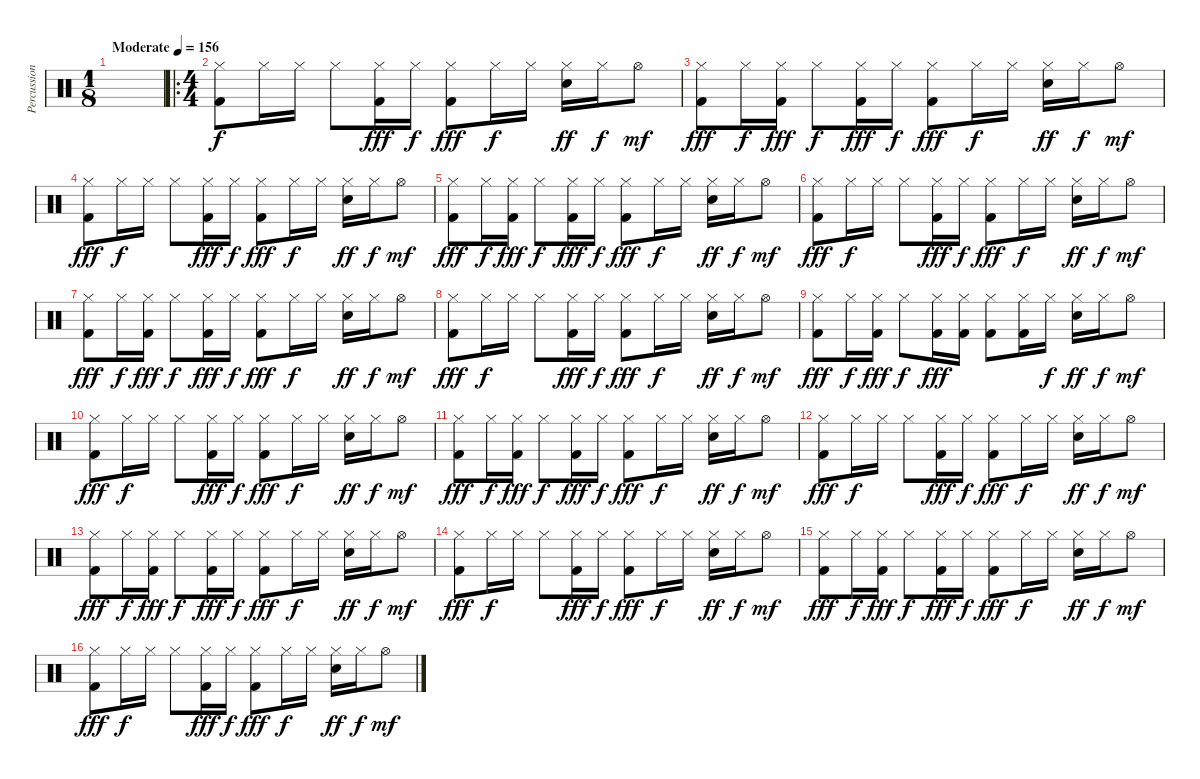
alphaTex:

\track ("Percussion" "Percussion") {instrument percussion}
\staff {score}
\articulation defaults
\ts (1 8)
\tempo (156 "Moderate")
\clef neutral
\ks c
|
\ro
\ts (4 4)
("Hi-Hat (closed)" "Kick (hit) 2").8 "Hi-Hat (closed)".16{dy f} "Hi-Hat (closed)".16 "Hi-Hat (closed)".8 ("Hi-Hat (closed)" "Kick (hit) 2").16{dy fff} "Hi-Hat (closed)".16{dy f} ("Hi-Hat (closed)" "Kick (hit) 2").8{dy fff} "Hi-Hat (closed)".16{dy f} "Hi-Hat (closed)".16 ("Hi-Hat (closed)" "Electric Snare (hit)").16{dy ff} "Hi-Hat (closed)".16{dy f} "Hi-Hat (open)".8{dy mf} |
("Hi-Hat (closed)" "Kick (hit) 2").8{dy fff} "Hi-Hat (closed)".16{dy f} ("Hi-Hat (closed)" "Kick (hit) 2").16{dy fff} "Hi-Hat (closed)".8{dy f} ("Hi-Hat (closed)" "Kick (hit) 2").16{dy fff} "Hi-Hat (closed)".16{dy f} ("Hi-Hat (closed)" "Kick (hit) 2").8{dy fff} "Hi-Hat (closed)".16{dy f} "Hi-Hat (closed)".16 ("Hi-Hat (closed)" "Electric Snare (hit)").16{dy ff} "Hi-Hat (closed)".16{dy f} "Hi-Hat (open)".8{dy mf} |
("Hi-Hat (closed)" "Kick (hit) 2").8{dy fff} "Hi-Hat (closed)".16{dy f} "Hi-Hat (closed)".16 "Hi-Hat (closed)".8 ("Hi-Hat (closed)" "Kick (hit) 2").16{dy fff} "Hi-Hat (closed)".16{dy f} ("Hi-Hat (closed)" "Kick (hit) 2").8{dy fff} "Hi-Hat (closed)".16{dy f} "Hi-Hat (closed)".16 ("Hi-Hat (closed)" "Electric Snare (hit)").16{dy ff} "Hi-Hat (closed)".16{dy f} "Hi-Hat (open)".8{dy mf} |
("Hi-Hat (closed)" "Kick (hit) 2").8{dy fff} "Hi-Hat (closed)".16{dy f} ("Hi-Hat (closed)" "Kick (hit) 2").16{dy fff} "Hi-Hat (closed)".8{dy f} ("Hi-Hat (closed)" "Kick (hit) 2").16{dy fff} "Hi-Hat (closed)".16{dy f} ("Hi-Hat (closed)" "Kick (hit) 2").8{dy fff} "Hi-Hat (closed)".16{dy f} "Hi-Hat (closed)".16 ("Hi-Hat (closed)" "Electric Snare (hit)").16{dy ff} "Hi-Hat (closed)".16{dy f} "Hi-Hat (open)".8{dy mf} |
("Hi-Hat (closed)" "Kick (hit) 2").8{dy fff} "Hi-Hat (closed)".16{dy f} "Hi-Hat (closed)".16 "Hi-Hat (closed)".8 ("Hi-Hat (closed)" "Kick (hit) 2").16{dy fff} "Hi-Hat (closed)".16{dy f} ("Hi-Hat (closed)" "Kick (hit) 2").8{dy fff} "Hi-Hat (closed)".16{dy f} "Hi-Hat (closed)".16 ("Hi-Hat (closed)" "Electric Snare (hit)").16{dy ff} "Hi-Hat (closed)".16{dy f} "Hi-Hat (open)".8{dy mf} |
("Hi-Hat (closed)" "Kick (hit) 2").8{dy fff} "Hi-Hat (closed)".16{dy f} ("Hi-Hat (closed)" "Kick (hit) 2").16{dy fff} "Hi-Hat (closed)".8{dy f} ("Hi-Hat (closed)" "Kick (hit) 2").16{dy fff} "Hi-Hat (closed)".16{dy f} ("Hi-Hat (closed)" "Kick (hit) 2").8{dy fff} "Hi-Hat (closed)".16{dy f} "Hi-Hat (closed)".16 ("Hi-Hat (closed)" "Electric Snare (hit)").16{dy ff} "Hi-Hat (closed)".16{dy f} "Hi-Hat (open)".8{dy mf} |
("Hi-Hat (closed)" "Kick (hit) 2").8{dy fff} "Hi-Hat (closed)".16{dy f} "Hi-Hat (closed)".16 "Hi-Hat (closed)".8 ("Hi-Hat (closed)" "Kick (hit) 2").16{dy fff} "Hi-Hat (closed)".16{dy f} ("Hi-Hat (closed)" "Kick (hit) 2").8{dy fff} "Hi-Hat (closed)".16{dy f} "Hi-Hat (closed)".16 ("Hi-Hat (closed)" "Electric Snare (hit)").16{dy ff} "Hi-Hat (closed)".16{dy f} "Hi-Hat (open)".8{dy mf} |
("Hi-Hat (closed)" "Kick (hit) 2").8{dy fff} "Hi-Hat (closed)".16{dy f} ("Hi-Hat (closed)" "Kick (hit) 2").16{dy fff} "Hi-Hat (closed)".8{dy f} ("Hi-Hat (closed)" "Kick (hit) 2").16{dy fff} ("Hi-Hat (closed)" "Kick (hit) 2").16 ("Hi-Hat (closed)" "Kick (hit) 2").8 ("Hi-Hat (closed)" "Kick (hit) 2").16 "Hi-Hat (closed)".16{dy f} ("Hi-Hat (closed)" "Electric Snare (hit)").16{dy ff} "Hi-Hat (closed)".16{dy f} "Hi-Hat (open)".8{dy mf} |
("Hi-Hat (closed)" "Kick (hit) 2").8{dy fff} "Hi-Hat (closed)".16{dy f} "Hi-Hat (closed)".16 "Hi-Hat (closed)".8 ("Hi-Hat (closed)" "Kick (hit) 2").16{dy fff} "Hi-Hat (closed)".16{dy f} ("Hi-Hat (closed)" "Kick (hit) 2").8{dy fff} "Hi-Hat (closed)".16{dy f} "Hi-Hat (closed)".16 ("Hi-Hat (closed)" "Electric Snare (hit)").16{dy ff} "Hi-Hat (closed)".16{dy f} "Hi-Hat (open)".8{dy mf} |
("Hi-Hat (closed)" "Kick (hit) 2").8{dy fff} "Hi-Hat (closed)".16{dy f} ("Hi-Hat (closed)" "Kick (hit) 2").16{dy fff} "Hi-Hat (closed)".8{dy f} ("Hi-Hat (closed)" "Kick (hit) 2").16{dy fff} "Hi-Hat (closed)".16{dy f} ("Hi-Hat (closed)" "Kick (hit) 2").8{dy fff} "Hi-Hat (closed)".16{dy f} "Hi-Hat (closed)".16 ("Hi-Hat (closed)" "Electric Snare (hit)").16{dy ff} "Hi-Hat (closed)".16{dy f} "Hi-Hat (open)".8{dy mf} |
("Hi-Hat (closed)" "Kick (hit) 2").8{dy fff} "Hi-Hat (closed)".16{dy f} "Hi-Hat (closed)".16 "Hi-Hat (closed)".8 ("Hi-Hat (closed)" "Kick (hit) 2").16{dy fff} "Hi-Hat (closed)".16{dy f} ("Hi-Hat (closed)" "Kick (hit) 2").8{dy fff} "Hi-Hat (closed)".16{dy f} "Hi-Hat (closed)".16 ("Hi-Hat (closed)" "Electric Snare (hit)").16{dy ff} "Hi-Hat (closed)".16{dy f} "Hi-Hat (open)".8{dy mf} |
("Hi-Hat (closed)" "Kick (hit) 2").8{dy fff} "Hi-Hat (closed)".16{dy f} ("Hi-Hat (closed)" "Kick (hit) 2").16{dy fff} "Hi-Hat (closed)".8{dy f} ("Hi-Hat (closed)" "Kick (hit) 2").16{dy fff} "Hi-Hat (closed)".16{dy f} ("Hi-Hat (closed)" "Kick (hit) 2").8{dy fff} "Hi-Hat (closed)".16{dy f} "Hi-Hat (closed)".16 ("Hi-Hat (closed)" "Electric Snare (hit)").16{dy ff} "Hi-Hat (closed)".16{dy f} "Hi-Hat (open)".8{dy mf} |
("Hi-Hat (closed)" "Kick (hit) 2").8{dy fff} "Hi-Hat (closed)".16{dy f} "Hi-Hat (closed)".16 "Hi-Hat (closed)".8 ("Hi-Hat (closed)" "Kick (hit) 2").16{dy fff} "Hi-Hat (closed)".16{dy f} ("Hi-Hat (closed)" "Kick (hit) 2").8{dy fff} "Hi-Hat (closed)".16{dy f} "Hi-Hat (closed)".16 ("Hi-Hat (closed)" "Electric Snare (hit)").16{dy ff} "Hi-Hat (closed)".16{dy f} "Hi-Hat (open)".8{dy mf} |
("Hi-Hat (closed)" "Kick (hit) 2").8{dy fff} "Hi-Hat (closed)".16{dy f} ("Hi-Hat (closed)" "Kick (hit) 2").16{dy fff} "Hi-Hat (closed)".8{dy f} ("Hi-Hat (closed)" "Kick (hit) 2").16{dy fff} "Hi-Hat (closed)".16{dy f} ("Hi-Hat (closed)" "Kick (hit) 2").8{dy fff} "Hi-Hat (closed)".16{dy f} "Hi-Hat (closed)".16 ("Hi-Hat (closed)" "Electric Snare (hit)").16{dy ff} "Hi-Hat (closed)".16{dy f} "Hi-Hat (open)".8{dy mf} |
("Hi-Hat (closed)" "Kick (hit) 2").8{dy fff} "Hi-Hat (closed)".16{dy f} "Hi-Hat (closed)".16 "Hi-Hat (closed)".8 ("Hi-Hat (closed)" "Kick (hit) 2").16{dy fff} "Hi-Hat (closed)".16{dy f} ("Hi-Hat (closed)" "Kick (hit) 2").8{dy fff} "Hi-Hat (closed)".16{dy f} "Hi-Hat (closed)".16 ("Hi-Hat (closed)" "Electric Snare (hit)").16{dy ff} "Hi-Hat (closed)".16{dy f} "Hi-Hat (open)".8{dy mf}
